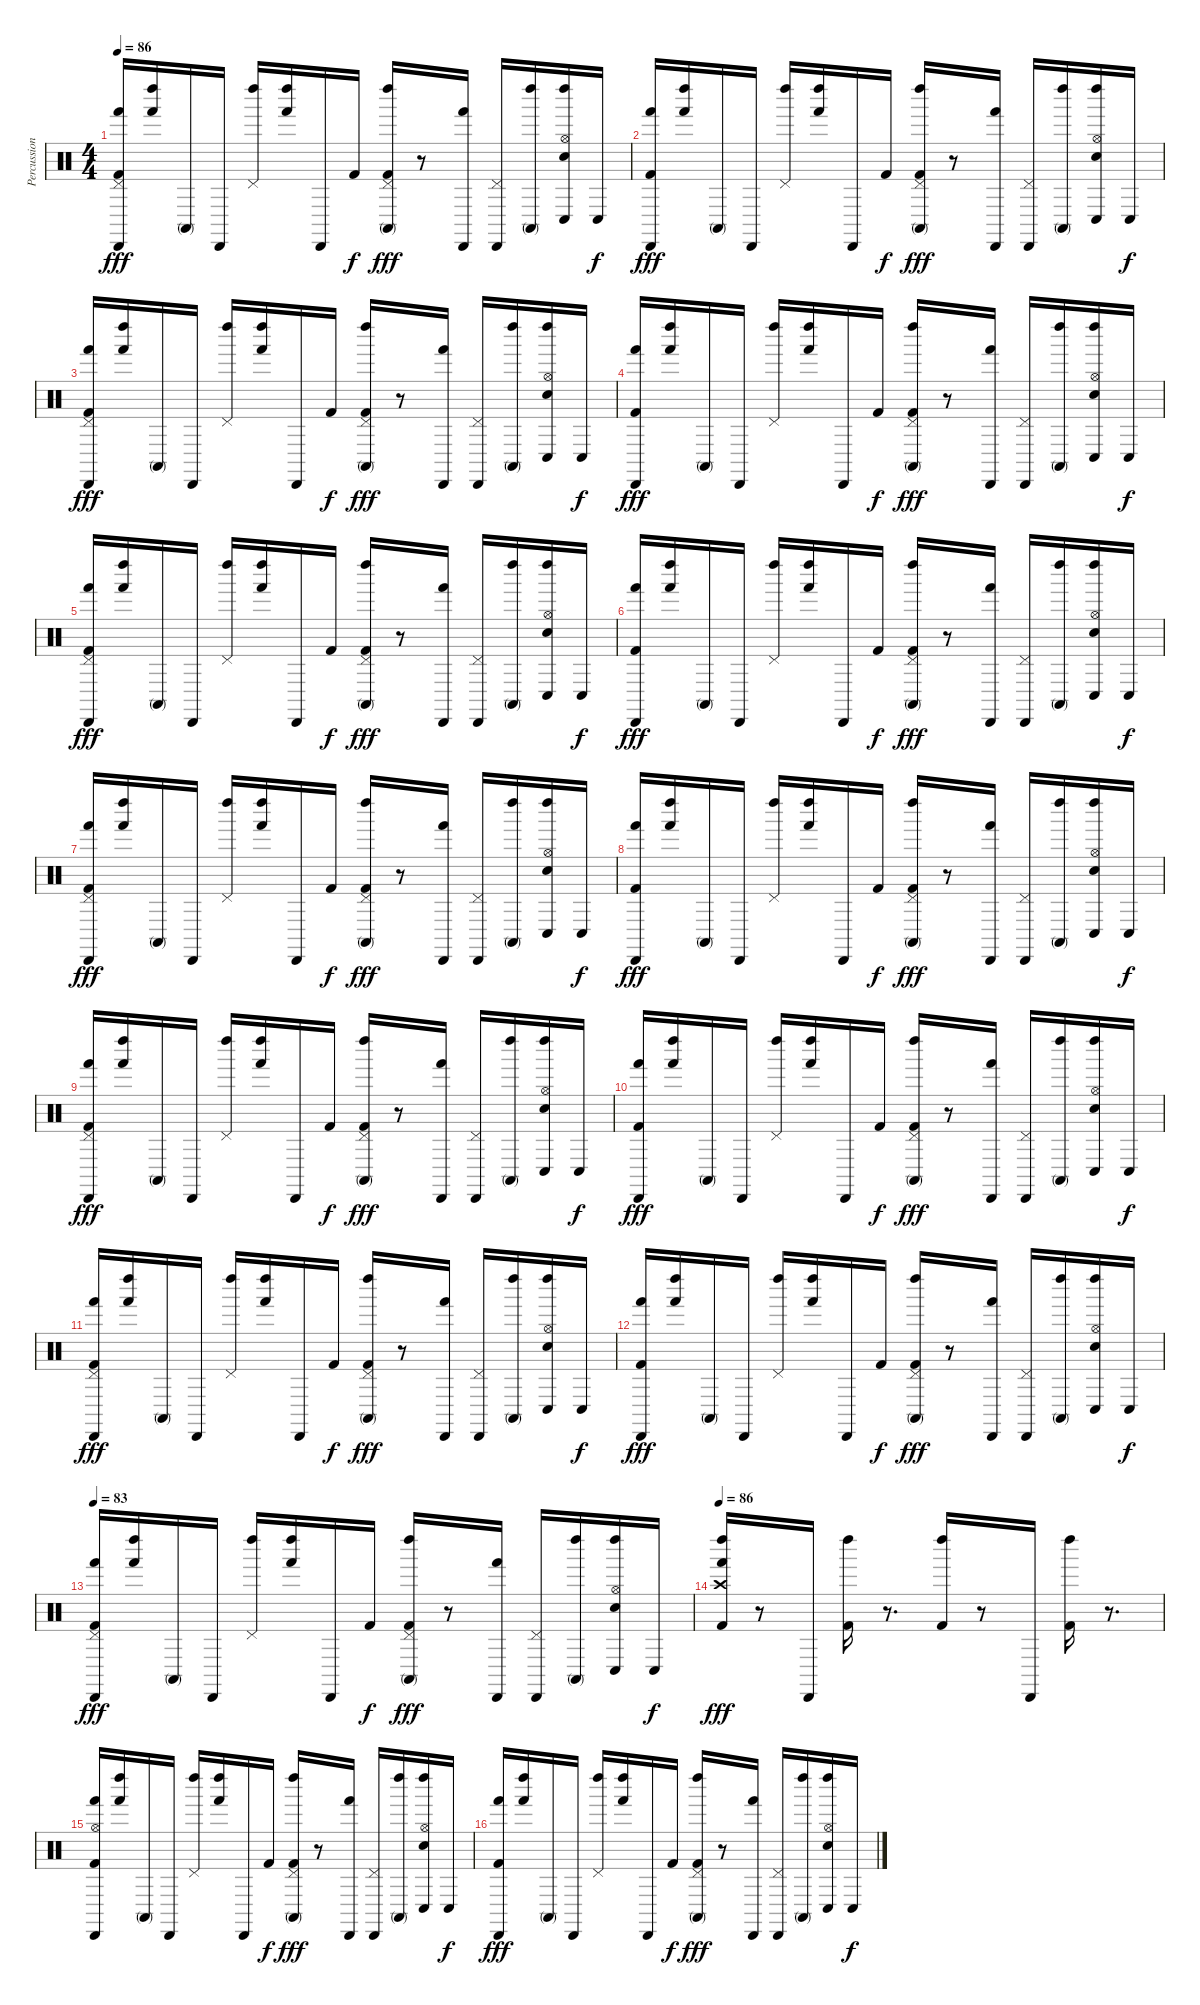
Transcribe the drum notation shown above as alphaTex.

\track ("Percussion" "Percussion") {instrument percussion}
\staff {score}
\articulation defaults
\ts (4 4)
\tempo 86
\clef neutral
\ks c
("Pedal Hi-Hat (hit)" "Kick (hit) 2" "Hand (hit)" "Cabasa (hit)").16{dy fff} ("Hand (hit)" "Left Maraca (hit)").16 "Conga high (mute)".16 "Cabasa (hit)".16 ("Pedal Hi-Hat (hit)" "Left Maraca (hit)").16 ("Left Maraca (hit)" "Hand (hit)").16 "Cabasa (hit)".16 "Kick (hit) 2".16{dy f} ("Pedal Hi-Hat (hit)" "Left Maraca (hit)" "Conga high (mute)" "Kick (hit) 2").16{dy fff} r.8 ("Cabasa (hit)" "Hand (hit)").16 ("Pedal Hi-Hat (hit)" "Cabasa (hit)").16 ("Left Maraca (hit)" "Conga high (mute)").16 ("Hi-Hat (open)" "Snare (hit) 2" "Left Maraca (hit)" "Conga low (hit)").16 "Conga low (hit)".16{dy f} |
("Hand (hit)" "Cabasa (hit)" "Kick (hit) 2").16{dy fff} ("Hand (hit)" "Left Maraca (hit)").16 "Conga high (mute)".16 "Cabasa (hit)".16 ("Pedal Hi-Hat (hit)" "Left Maraca (hit)").16 ("Left Maraca (hit)" "Hand (hit)").16 "Cabasa (hit)".16 "Kick (hit) 2".16{dy f} ("Pedal Hi-Hat (hit)" "Left Maraca (hit)" "Conga high (mute)" "Kick (hit) 2").16{dy fff} r.8 ("Cabasa (hit)" "Hand (hit)").16 ("Pedal Hi-Hat (hit)" "Cabasa (hit)").16 ("Left Maraca (hit)" "Conga high (mute)").16 ("Hi-Hat (open)" "Snare (hit) 2" "Left Maraca (hit)" "Conga low (hit)").16 "Conga low (hit)".16{dy f} |
("Pedal Hi-Hat (hit)" "Kick (hit) 2" "Hand (hit)" "Cabasa (hit)").16{dy fff} ("Hand (hit)" "Left Maraca (hit)").16 "Conga high (mute)".16 "Cabasa (hit)".16 ("Pedal Hi-Hat (hit)" "Left Maraca (hit)").16 ("Left Maraca (hit)" "Hand (hit)").16 "Cabasa (hit)".16 "Kick (hit) 2".16{dy f} ("Pedal Hi-Hat (hit)" "Left Maraca (hit)" "Conga high (mute)" "Kick (hit) 2").16{dy fff} r.8 ("Cabasa (hit)" "Hand (hit)").16 ("Pedal Hi-Hat (hit)" "Cabasa (hit)").16 ("Left Maraca (hit)" "Conga high (mute)").16 ("Hi-Hat (open)" "Snare (hit) 2" "Left Maraca (hit)" "Conga low (hit)").16 "Conga low (hit)".16{dy f} |
("Hand (hit)" "Cabasa (hit)" "Kick (hit) 2").16{dy fff} ("Hand (hit)" "Left Maraca (hit)").16 "Conga high (mute)".16 "Cabasa (hit)".16 ("Pedal Hi-Hat (hit)" "Left Maraca (hit)").16 ("Left Maraca (hit)" "Hand (hit)").16 "Cabasa (hit)".16 "Kick (hit) 2".16{dy f} ("Pedal Hi-Hat (hit)" "Left Maraca (hit)" "Conga high (mute)" "Kick (hit) 2").16{dy fff} r.8 ("Cabasa (hit)" "Hand (hit)").16 ("Pedal Hi-Hat (hit)" "Cabasa (hit)").16 ("Left Maraca (hit)" "Conga high (mute)").16 ("Hi-Hat (open)" "Snare (hit) 2" "Left Maraca (hit)" "Conga low (hit)").16 "Conga low (hit)".16{dy f} |
("Pedal Hi-Hat (hit)" "Kick (hit) 2" "Hand (hit)" "Cabasa (hit)").16{dy fff} ("Hand (hit)" "Left Maraca (hit)").16 "Conga high (mute)".16 "Cabasa (hit)".16 ("Pedal Hi-Hat (hit)" "Left Maraca (hit)").16 ("Left Maraca (hit)" "Hand (hit)").16 "Cabasa (hit)".16 "Kick (hit) 2".16{dy f} ("Pedal Hi-Hat (hit)" "Left Maraca (hit)" "Conga high (mute)" "Kick (hit) 2").16{dy fff} r.8 ("Cabasa (hit)" "Hand (hit)").16 ("Pedal Hi-Hat (hit)" "Cabasa (hit)").16 ("Left Maraca (hit)" "Conga high (mute)").16 ("Hi-Hat (open)" "Snare (hit) 2" "Left Maraca (hit)" "Conga low (hit)").16 "Conga low (hit)".16{dy f} |
("Hand (hit)" "Cabasa (hit)" "Kick (hit) 2").16{dy fff} ("Hand (hit)" "Left Maraca (hit)").16 "Conga high (mute)".16 "Cabasa (hit)".16 ("Pedal Hi-Hat (hit)" "Left Maraca (hit)").16 ("Left Maraca (hit)" "Hand (hit)").16 "Cabasa (hit)".16 "Kick (hit) 2".16{dy f} ("Pedal Hi-Hat (hit)" "Left Maraca (hit)" "Conga high (mute)" "Kick (hit) 2").16{dy fff} r.8 ("Cabasa (hit)" "Hand (hit)").16 ("Pedal Hi-Hat (hit)" "Cabasa (hit)").16 ("Left Maraca (hit)" "Conga high (mute)").16 ("Hi-Hat (open)" "Snare (hit) 2" "Left Maraca (hit)" "Conga low (hit)").16 "Conga low (hit)".16{dy f} |
("Pedal Hi-Hat (hit)" "Kick (hit) 2" "Hand (hit)" "Cabasa (hit)").16{dy fff} ("Hand (hit)" "Left Maraca (hit)").16 "Conga high (mute)".16 "Cabasa (hit)".16 ("Pedal Hi-Hat (hit)" "Left Maraca (hit)").16 ("Left Maraca (hit)" "Hand (hit)").16 "Cabasa (hit)".16 "Kick (hit) 2".16{dy f} ("Pedal Hi-Hat (hit)" "Left Maraca (hit)" "Conga high (mute)" "Kick (hit) 2").16{dy fff} r.8 ("Cabasa (hit)" "Hand (hit)").16 ("Pedal Hi-Hat (hit)" "Cabasa (hit)").16 ("Left Maraca (hit)" "Conga high (mute)").16 ("Hi-Hat (open)" "Snare (hit) 2" "Left Maraca (hit)" "Conga low (hit)").16 "Conga low (hit)".16{dy f} |
("Hand (hit)" "Cabasa (hit)" "Kick (hit) 2").16{dy fff} ("Hand (hit)" "Left Maraca (hit)").16 "Conga high (mute)".16 "Cabasa (hit)".16 ("Pedal Hi-Hat (hit)" "Left Maraca (hit)").16 ("Left Maraca (hit)" "Hand (hit)").16 "Cabasa (hit)".16 "Kick (hit) 2".16{dy f} ("Pedal Hi-Hat (hit)" "Left Maraca (hit)" "Conga high (mute)" "Kick (hit) 2").16{dy fff} r.8 ("Cabasa (hit)" "Hand (hit)").16 ("Pedal Hi-Hat (hit)" "Cabasa (hit)").16 ("Left Maraca (hit)" "Conga high (mute)").16 ("Hi-Hat (open)" "Snare (hit) 2" "Left Maraca (hit)" "Conga low (hit)").16 "Conga low (hit)".16{dy f} |
("Pedal Hi-Hat (hit)" "Kick (hit) 2" "Hand (hit)" "Cabasa (hit)").16{dy fff} ("Hand (hit)" "Left Maraca (hit)").16 "Conga high (mute)".16 "Cabasa (hit)".16 ("Pedal Hi-Hat (hit)" "Left Maraca (hit)").16 ("Left Maraca (hit)" "Hand (hit)").16 "Cabasa (hit)".16 "Kick (hit) 2".16{dy f} ("Pedal Hi-Hat (hit)" "Left Maraca (hit)" "Conga high (mute)" "Kick (hit) 2").16{dy fff} r.8 ("Cabasa (hit)" "Hand (hit)").16 ("Pedal Hi-Hat (hit)" "Cabasa (hit)").16 ("Left Maraca (hit)" "Conga high (mute)").16 ("Hi-Hat (open)" "Snare (hit) 2" "Left Maraca (hit)" "Conga low (hit)").16 "Conga low (hit)".16{dy f} |
("Hand (hit)" "Cabasa (hit)" "Kick (hit) 2").16{dy fff} ("Hand (hit)" "Left Maraca (hit)").16 "Conga high (mute)".16 "Cabasa (hit)".16 ("Pedal Hi-Hat (hit)" "Left Maraca (hit)").16 ("Left Maraca (hit)" "Hand (hit)").16 "Cabasa (hit)".16 "Kick (hit) 2".16{dy f} ("Pedal Hi-Hat (hit)" "Left Maraca (hit)" "Conga high (mute)" "Kick (hit) 2").16{dy fff} r.8 ("Cabasa (hit)" "Hand (hit)").16 ("Pedal Hi-Hat (hit)" "Cabasa (hit)").16 ("Left Maraca (hit)" "Conga high (mute)").16 ("Hi-Hat (open)" "Snare (hit) 2" "Left Maraca (hit)" "Conga low (hit)").16 "Conga low (hit)".16{dy f} |
("Pedal Hi-Hat (hit)" "Kick (hit) 2" "Hand (hit)" "Cabasa (hit)").16{dy fff} ("Hand (hit)" "Left Maraca (hit)").16 "Conga high (mute)".16 "Cabasa (hit)".16 ("Pedal Hi-Hat (hit)" "Left Maraca (hit)").16 ("Left Maraca (hit)" "Hand (hit)").16 "Cabasa (hit)".16 "Kick (hit) 2".16{dy f} ("Pedal Hi-Hat (hit)" "Left Maraca (hit)" "Conga high (mute)" "Kick (hit) 2").16{dy fff} r.8 ("Cabasa (hit)" "Hand (hit)").16 ("Pedal Hi-Hat (hit)" "Cabasa (hit)").16 ("Left Maraca (hit)" "Conga high (mute)").16 ("Hi-Hat (open)" "Snare (hit) 2" "Left Maraca (hit)" "Conga low (hit)").16 "Conga low (hit)".16{dy f} |
("Hand (hit)" "Cabasa (hit)" "Kick (hit) 2").16{dy fff} ("Hand (hit)" "Left Maraca (hit)").16 "Conga high (mute)".16 "Cabasa (hit)".16 ("Pedal Hi-Hat (hit)" "Left Maraca (hit)").16 ("Left Maraca (hit)" "Hand (hit)").16 "Cabasa (hit)".16 "Kick (hit) 2".16{dy f} ("Pedal Hi-Hat (hit)" "Left Maraca (hit)" "Conga high (mute)" "Kick (hit) 2").16{dy fff} r.8 ("Cabasa (hit)" "Hand (hit)").16 ("Pedal Hi-Hat (hit)" "Cabasa (hit)").16 ("Left Maraca (hit)" "Conga high (mute)").16 ("Hi-Hat (open)" "Snare (hit) 2" "Left Maraca (hit)" "Conga low (hit)").16 "Conga low (hit)".16{dy f} |
\tempo 83
("Pedal Hi-Hat (hit)" "Kick (hit) 2" "Hand (hit)" "Cabasa (hit)").16{dy fff} ("Hand (hit)" "Left Maraca (hit)").16 "Conga high (mute)".16 "Cabasa (hit)".16 ("Pedal Hi-Hat (hit)" "Left Maraca (hit)").16 ("Left Maraca (hit)" "Hand (hit)").16 "Cabasa (hit)".16 "Kick (hit) 2".16{dy f} ("Pedal Hi-Hat (hit)" "Left Maraca (hit)" "Conga high (mute)" "Kick (hit) 2").16{dy fff} r.8 ("Cabasa (hit)" "Hand (hit)").16 ("Pedal Hi-Hat (hit)" "Cabasa (hit)").16 ("Left Maraca (hit)" "Conga high (mute)").16 ("Hi-Hat (open)" "Snare (hit) 2" "Left Maraca (hit)" "Conga low (hit)").16 "Conga low (hit)".16{dy f} |
\tempo 86
("Left Maraca (hit)" "Hand (hit)" "Crash high (hit)" "Kick (hit) 2").16{dy fff} r.8 "Cabasa (hit)".16 ("Left Maraca (hit)" "Kick (hit) 2").16 r.8{d} ("Left Maraca (hit)" "Kick (hit) 2").16 r.8 "Cabasa (hit)".16 ("Left Maraca (hit)" "Kick (hit) 2").16 r.8{d} |
("Hi-Hat (open)" "Cabasa (hit)" "Kick (hit) 2" "Hand (hit)").16 ("Hand (hit)" "Left Maraca (hit)").16 "Conga high (mute)".16 "Cabasa (hit)".16 ("Pedal Hi-Hat (hit)" "Left Maraca (hit)").16 ("Left Maraca (hit)" "Hand (hit)").16 "Cabasa (hit)".16 "Kick (hit) 2".16{dy f} ("Pedal Hi-Hat (hit)" "Left Maraca (hit)" "Conga high (mute)" "Kick (hit) 2").16{dy fff} r.8 ("Cabasa (hit)" "Hand (hit)").16 ("Pedal Hi-Hat (hit)" "Cabasa (hit)").16 ("Left Maraca (hit)" "Conga high (mute)").16 ("Hi-Hat (open)" "Snare (hit) 2" "Left Maraca (hit)" "Conga low (hit)").16 "Conga low (hit)".16{dy f} |
("Hand (hit)" "Cabasa (hit)" "Kick (hit) 2").16{dy fff} ("Hand (hit)" "Left Maraca (hit)").16 "Conga high (mute)".16 "Cabasa (hit)".16 ("Pedal Hi-Hat (hit)" "Left Maraca (hit)").16 ("Left Maraca (hit)" "Hand (hit)").16 "Cabasa (hit)".16 "Kick (hit) 2".16{dy f} ("Pedal Hi-Hat (hit)" "Left Maraca (hit)" "Conga high (mute)" "Kick (hit) 2").16{dy fff} r.8 ("Cabasa (hit)" "Hand (hit)").16 ("Pedal Hi-Hat (hit)" "Cabasa (hit)").16 ("Left Maraca (hit)" "Conga high (mute)").16 ("Hi-Hat (open)" "Snare (hit) 2" "Left Maraca (hit)" "Conga low (hit)").16 "Conga low (hit)".16{dy f}
